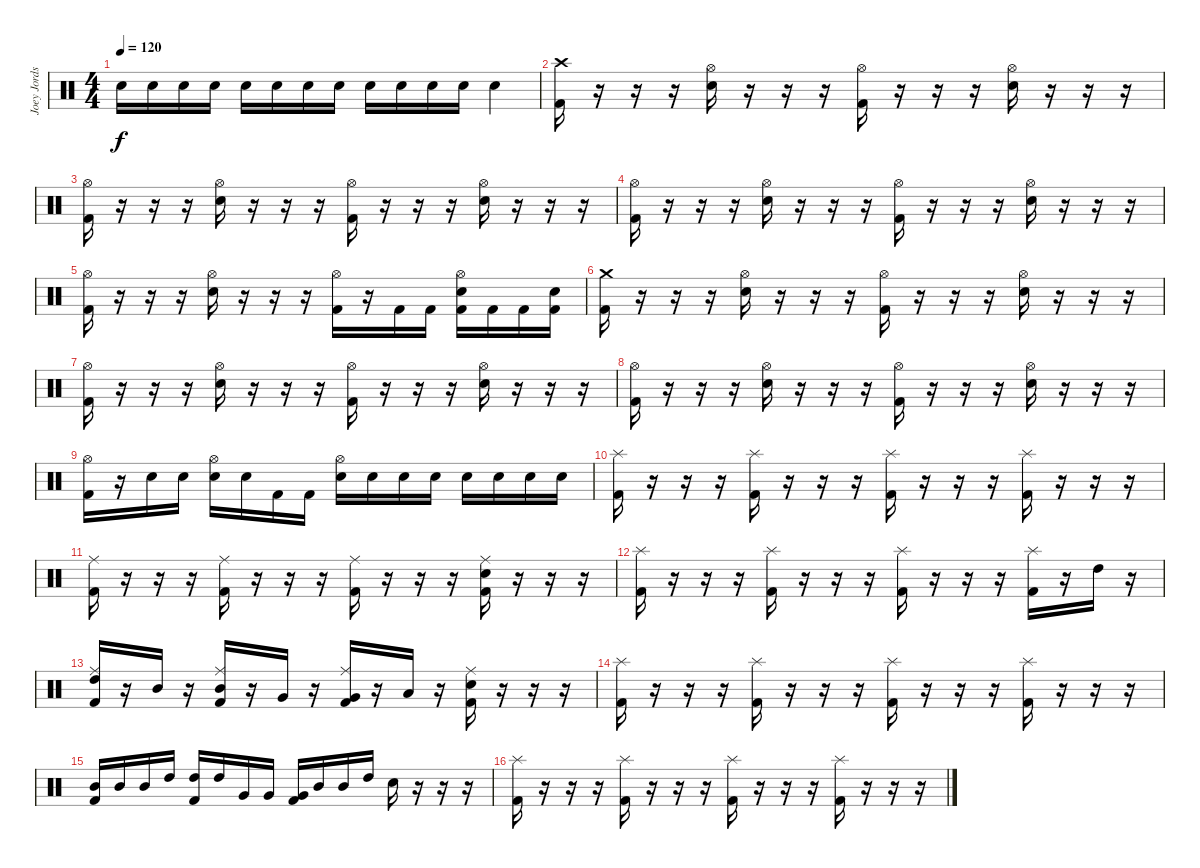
\track ("Joey Jordson" "Joey Jords") {instrument percussion}
\staff {score}
\articulation defaults
\ts (4 4)
\tempo 120
\clef neutral
\ks c "Electric Snare (hit)".16{dy f} "Electric Snare (hit)".16 "Electric Snare (hit)".16 "Electric Snare (hit)".16 "Electric Snare (hit)".16 "Electric Snare (hit)".16 "Electric Snare (hit)".16 "Electric Snare (hit)".16 "Electric Snare (hit)".16 "Electric Snare (hit)".16 "Electric Snare (hit)".16 "Electric Snare (hit)".16 "Electric Snare (hit)".4
|
("Crash high (hit)" "Kick (hit) 2").16 r.16 r.16 r.16 ("Hi-Hat (open)" "Electric Snare (hit)").16 r.16 r.16 r.16 ("Hi-Hat (open)" "Kick (hit) 2").16 r.16 r.16 r.16 ("Hi-Hat (open)" "Electric Snare (hit)").16 r.16 r.16 r.16 |
("Hi-Hat (open)" "Kick (hit) 2").16 r.16 r.16 r.16 ("Hi-Hat (open)" "Electric Snare (hit)").16 r.16 r.16 r.16 ("Hi-Hat (open)" "Kick (hit) 2").16 r.16 r.16 r.16 ("Hi-Hat (open)" "Electric Snare (hit)").16 r.16 r.16 r.16 |
("Hi-Hat (open)" "Kick (hit) 2").16 r.16 r.16 r.16 ("Hi-Hat (open)" "Electric Snare (hit)").16 r.16 r.16 r.16 ("Hi-Hat (open)" "Kick (hit) 2").16 r.16 r.16 r.16 ("Hi-Hat (open)" "Electric Snare (hit)").16 r.16 r.16 r.16 |
("Hi-Hat (open)" "Kick (hit) 2").16 r.16 r.16 r.16 ("Hi-Hat (open)" "Electric Snare (hit)").16 r.16 r.16 r.16 ("Hi-Hat (open)" "Kick (hit) 2").16 r.16 "Kick (hit) 2".16 "Kick (hit) 2".16 ("Hi-Hat (open)" "Electric Snare (hit)" "Kick (hit) 2").16 "Kick (hit) 2".16 "Kick (hit) 2".16 ("Electric Snare (hit)" "Kick (hit) 2").16 |
("Crash medium (hit)" "Kick (hit) 2").16 r.16 r.16 r.16 ("Hi-Hat (open)" "Electric Snare (hit)").16 r.16 r.16 r.16 ("Hi-Hat (open)" "Kick (hit) 2").16 r.16 r.16 r.16 ("Hi-Hat (open)" "Electric Snare (hit)").16 r.16 r.16 r.16 |
("Hi-Hat (open)" "Kick (hit) 2").16 r.16 r.16 r.16 ("Hi-Hat (open)" "Electric Snare (hit)").16 r.16 r.16 r.16 ("Hi-Hat (open)" "Kick (hit) 2").16 r.16 r.16 r.16 ("Hi-Hat (open)" "Electric Snare (hit)").16 r.16 r.16 r.16 |
("Hi-Hat (open)" "Kick (hit) 2").16 r.16 r.16 r.16 ("Hi-Hat (open)" "Electric Snare (hit)").16 r.16 r.16 r.16 ("Hi-Hat (open)" "Kick (hit) 2").16 r.16 r.16 r.16 ("Hi-Hat (open)" "Electric Snare (hit)").16 r.16 r.16 r.16 |
("Hi-Hat (open)" "Kick (hit) 2").16 r.16 "Electric Snare (hit)".16 "Electric Snare (hit)".16 ("Hi-Hat (open)" "Electric Snare (hit)").16 "Electric Snare (hit)".16 "Kick (hit) 2".16 "Kick (hit) 2".16 ("Hi-Hat (open)" "Electric Snare (hit)").16 "Electric Snare (hit)".16 "Electric Snare (hit)".16 "Electric Snare (hit)".16 "Electric Snare (hit)".16 "Electric Snare (hit)".16 "Electric Snare (hit)".16 "Electric Snare (hit)".16 |
("Splash (hit)" "Kick (hit) 2").16 r.16 r.16 r.16 ("Splash (hit)" "Kick (hit) 2").16 r.16 r.16 r.16 ("Splash (hit)" "Kick (hit) 2").16 r.16 r.16 r.16 ("Splash (hit)" "Kick (hit) 2").16 r.16 r.16 r.16 |
("Ride (middle)" "Kick (hit) 2").16 r.16 r.16 r.16 ("Ride (middle)" "Kick (hit) 2").16 r.16 r.16 r.16 ("Ride (middle)" "Kick (hit) 2").16 r.16 r.16 r.16 ("Ride (middle)" "Electric Snare (hit)" "Kick (hit) 2").16 r.16 r.16 r.16 |
("Splash (hit)" "Kick (hit) 2").16 r.16 r.16 r.16 ("Splash (hit)" "Kick (hit) 2").16 r.16 r.16 r.16 ("Splash (hit)" "Kick (hit) 2").16 r.16 r.16 r.16 ("Splash (hit)" "Kick (hit) 2").16 r.16 "High Tom (hit)".16 r.16 |
("Ride (middle)" "High Tom (hit)" "Kick (hit) 2").16 r.16 "Mid Tom (hit)".16 r.16 ("Ride (middle)" "Mid Tom (hit)" "Kick (hit) 2").16 r.16 "Very Low Tom (hit)".16 r.16 ("Ride (middle)" "Very Low Tom (hit)" "Kick (hit) 2").16 r.16 "Low Tom (hit)".16 r.16 ("Ride (middle)" "Electric Snare (hit)" "Kick (hit) 2").16 r.16 r.16 r.16 |
("Splash (hit)" "Kick (hit) 2").16 r.16 r.16 r.16 ("Splash (hit)" "Kick (hit) 2").16 r.16 r.16 r.16 ("Splash (hit)" "Kick (hit) 2").16 r.16 r.16 r.16 ("Splash (hit)" "Kick (hit) 2").16 r.16 r.16 r.16 |
("Mid Tom (hit)" "Kick (hit) 2").16 "Mid Tom (hit)".16 "Mid Tom (hit)".16 "High Tom (hit)".16 ("High Tom (hit)" "Kick (hit) 2").16 "High Tom (hit)".16 "Very Low Tom (hit)".16 "Very Low Tom (hit)".16 ("Very Low Tom (hit)" "Kick (hit) 2").16 "Mid Tom (hit)".16 "Mid Tom (hit)".16 "High Tom (hit)".16 "Electric Snare (hit)".16 r.16 r.16 r.16 |
("Splash (hit)" "Kick (hit) 2").16 r.16 r.16 r.16 ("Splash (hit)" "Kick (hit) 2").16 r.16 r.16 r.16 ("Splash (hit)" "Kick (hit) 2").16 r.16 r.16 r.16 ("Splash (hit)" "Kick (hit) 2").16 r.16 r.16 r.16
